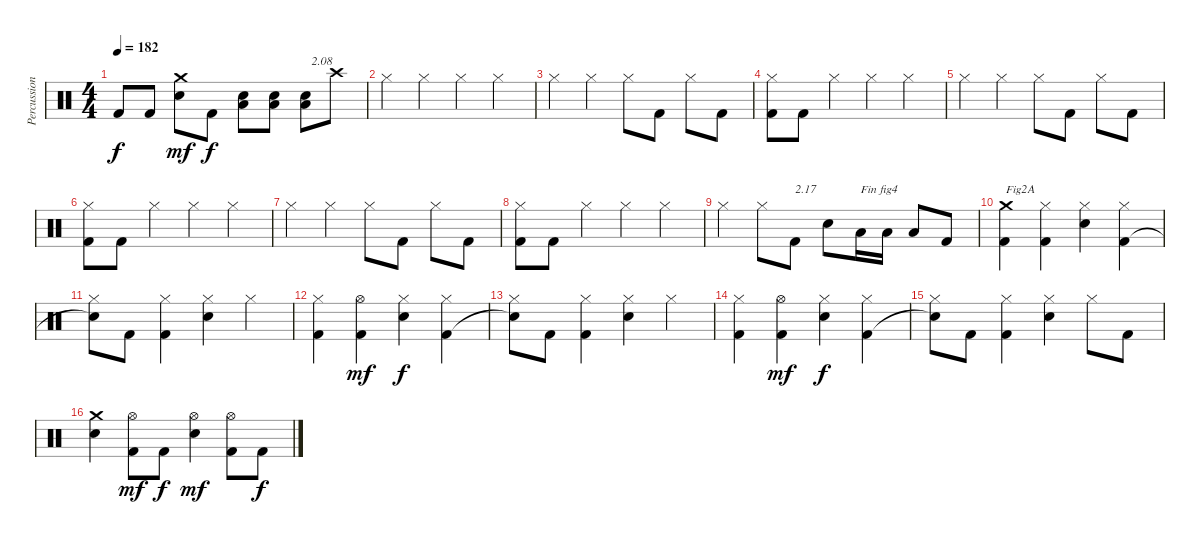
\track ("Percussions" "Percussion") {instrument percussion}
\staff {score}
\articulation defaults
\ts (4 4)
\tempo 182
\clef neutral
\ks c "Kick (hit) 2".8{dy f} "Kick (hit) 2".8
("Electric Snare (hit)" "Crash medium (hit)").8{dy mf} "Kick (hit) 2".8{dy f} ("Low Floor Tom (hit)" "Electric Snare (hit)").8 ("Low Floor Tom (hit)" "Electric Snare (hit)").8 ("Low Floor Tom (hit)" "Electric Snare (hit)").8{txt "  2.08"} "Crash high (hit)".8 |
"Hi-Hat (closed)".4 "Hi-Hat (closed)".4 "Hi-Hat (closed)".4 "Hi-Hat (closed)".4 |
"Hi-Hat (closed)".4 "Hi-Hat (closed)".4 "Hi-Hat (closed)".8 "Kick (hit) 2".8 "Hi-Hat (closed)".8 "Kick (hit) 2".8 |
("Kick (hit) 2" "Hi-Hat (closed)").8 "Kick (hit) 2".8 "Hi-Hat (closed)".4 "Hi-Hat (closed)".4 "Hi-Hat (closed)".4 |
"Hi-Hat (closed)".4 "Hi-Hat (closed)".4 "Hi-Hat (closed)".8 "Kick (hit) 2".8 "Hi-Hat (closed)".8 "Kick (hit) 2".8 |
("Kick (hit) 2" "Hi-Hat (closed)").8 "Kick (hit) 2".8 "Hi-Hat (closed)".4 "Hi-Hat (closed)".4 "Hi-Hat (closed)".4 |
"Hi-Hat (closed)".4 "Hi-Hat (closed)".4 "Hi-Hat (closed)".8 "Kick (hit) 2".8 "Hi-Hat (closed)".8 "Kick (hit) 2".8 |
("Kick (hit) 2" "Hi-Hat (closed)").8 "Kick (hit) 2".8 "Hi-Hat (closed)".4 "Hi-Hat (closed)".4 "Hi-Hat (closed)".4 |
"Hi-Hat (closed)".4 "Hi-Hat (closed)".8 "Kick (hit) 2".8{txt "2.17"} "Electric Snare (hit)".8 "Low Floor Tom (hit)".16{txt "Fin fig4"} "Low Floor Tom (hit)".16 "Low Floor Tom (hit)".8 "Kick (hit) 2".8 |
("Kick (hit) 2" "Crash medium (hit)").4{txt "Fig2A"} ("Kick (hit) 2" "Hi-Hat (closed)").4 ("Electric Snare (hit)" "Hi-Hat (closed)").4 ("Kick (hit) 2" "Hi-Hat (closed)").4 |
("Snare (hit)"{t} "Hi-Hat (closed)").8 "Kick (hit) 2".8 ("Kick (hit) 2" "Hi-Hat (closed)").4 ("Electric Snare (hit)" "Hi-Hat (closed)").4 "Hi-Hat (closed)".4 |
("Kick (hit) 2" "Hi-Hat (closed)").4 ("Kick (hit) 2" "Hi-Hat (open)").4{dy mf} ("Electric Snare (hit)" "Hi-Hat (closed)").4{dy f} ("Kick (hit) 2" "Hi-Hat (closed)").4 |
("Snare (hit)"{t} "Hi-Hat (closed)").8 "Kick (hit) 2".8 ("Kick (hit) 2" "Hi-Hat (closed)").4 ("Electric Snare (hit)" "Hi-Hat (closed)").4 "Hi-Hat (closed)".4 |
("Kick (hit) 2" "Hi-Hat (closed)").4 ("Kick (hit) 2" "Hi-Hat (open)").4{dy mf} ("Electric Snare (hit)" "Hi-Hat (closed)").4{dy f} ("Kick (hit) 2" "Hi-Hat (closed)").4 |
("Snare (hit)"{t} "Hi-Hat (closed)").8 "Kick (hit) 2".8 ("Kick (hit) 2" "Hi-Hat (closed)").4 ("Electric Snare (hit)" "Hi-Hat (closed)").4 "Hi-Hat (closed)".8 "Kick (hit) 2".8 |
("Electric Snare (hit)" "Crash medium (hit)").4 ("Kick (hit) 2" "Hi-Hat (open)").8{dy mf} "Kick (hit) 2".8{dy f} ("Electric Snare (hit)" "Hi-Hat (open)").4{dy mf} ("Kick (hit) 2" "Hi-Hat (open)").8 "Kick (hit) 2".8{dy f}
